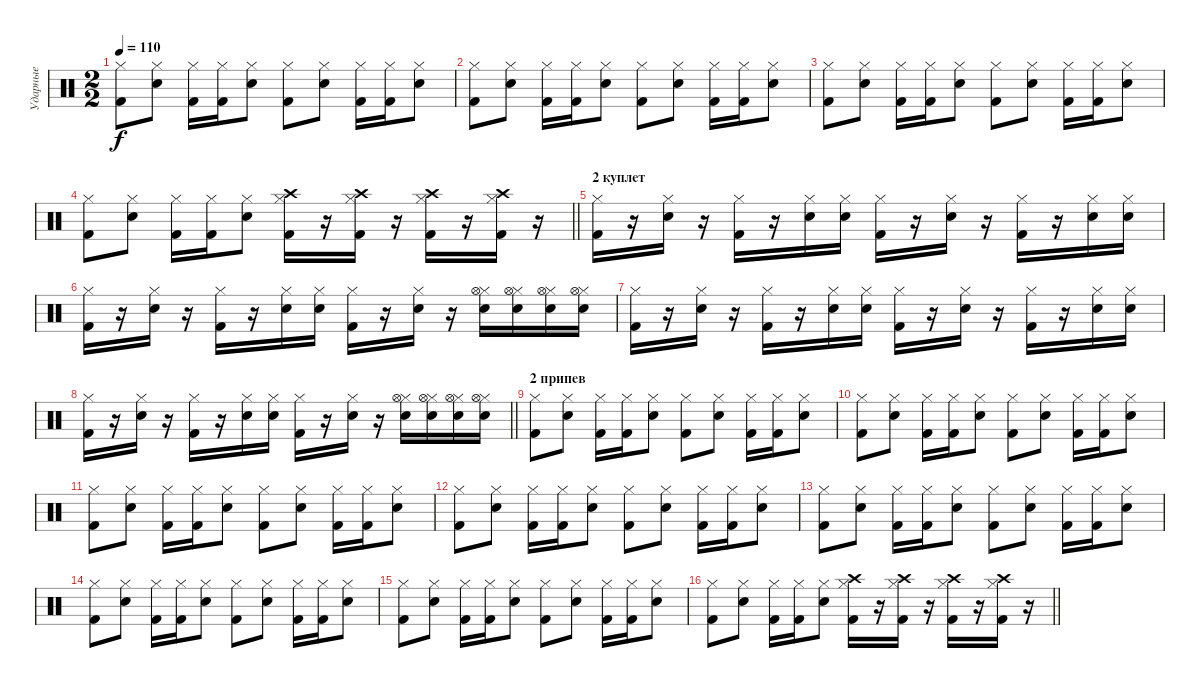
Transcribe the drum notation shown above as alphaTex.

\track ("Ударные" "Ударные") {instrument percussion}
\staff {score}
\articulation defaults
\ts (2 2)
\tempo 110
\clef neutral
\ks c
("Hi-Hat (closed)" "Kick (hit) 2").8{dy f} ("Snare (hit) 2" "Hi-Hat (closed)").8 ("Hi-Hat (closed)" "Kick (hit) 2").16 ("Hi-Hat (closed)" "Kick (hit) 2").16 ("Snare (hit) 2" "Hi-Hat (closed)").8 ("Hi-Hat (closed)" "Kick (hit) 2").8 ("Snare (hit) 2" "Hi-Hat (closed)").8 ("Hi-Hat (closed)" "Kick (hit) 2").16 ("Hi-Hat (closed)" "Kick (hit) 2").16 ("Snare (hit) 2" "Hi-Hat (closed)").8 |
("Hi-Hat (closed)" "Kick (hit) 2").8 ("Snare (hit) 2" "Hi-Hat (closed)").8 ("Hi-Hat (closed)" "Kick (hit) 2").16 ("Hi-Hat (closed)" "Kick (hit) 2").16 ("Snare (hit) 2" "Hi-Hat (closed)").8 ("Hi-Hat (closed)" "Kick (hit) 2").8 ("Snare (hit) 2" "Hi-Hat (closed)").8 ("Hi-Hat (closed)" "Kick (hit) 2").16 ("Hi-Hat (closed)" "Kick (hit) 2").16 ("Snare (hit) 2" "Hi-Hat (closed)").8 |
("Hi-Hat (closed)" "Kick (hit) 2").8 ("Snare (hit) 2" "Hi-Hat (closed)").8 ("Hi-Hat (closed)" "Kick (hit) 2").16 ("Hi-Hat (closed)" "Kick (hit) 2").16 ("Snare (hit) 2" "Hi-Hat (closed)").8 ("Hi-Hat (closed)" "Kick (hit) 2").8 ("Snare (hit) 2" "Hi-Hat (closed)").8 ("Hi-Hat (closed)" "Kick (hit) 2").16 ("Hi-Hat (closed)" "Kick (hit) 2").16 ("Snare (hit) 2" "Hi-Hat (closed)").8 |
\barLineRight lightlight
("Hi-Hat (closed)" "Kick (hit) 2").8 ("Snare (hit) 2" "Hi-Hat (closed)").8 ("Hi-Hat (closed)" "Kick (hit) 2").16 ("Hi-Hat (closed)" "Kick (hit) 2").16 ("Snare (hit) 2" "Hi-Hat (closed)").8 ("Crash high (hit)" "Hi-Hat (closed)" "Kick (hit) 2").16 r.16 ("Crash high (hit)" "Hi-Hat (closed)" "Kick (hit) 2").16 r.16 ("Crash high (hit)" "Hi-Hat (closed)" "Kick (hit) 2").16 r.16 ("Crash high (hit)" "Hi-Hat (closed)" "Kick (hit) 2").16 r.16 |
\section ("" "2 куплет")
("Hi-Hat (closed)" "Kick (hit) 2").16 r.16 ("Hi-Hat (closed)" "Snare (hit) 2").16 r.16 ("Hi-Hat (closed)" "Kick (hit) 2").16 r.16 ("Snare (hit) 2" "Hi-Hat (closed)").16 ("Snare (hit) 2" "Hi-Hat (closed)").16 ("Hi-Hat (closed)" "Kick (hit) 2").16 r.16 ("Snare (hit) 2" "Hi-Hat (closed)").16 r.16 ("Hi-Hat (closed)" "Kick (hit) 2").16 r.16 ("Snare (hit) 2" "Hi-Hat (closed)").16 ("Snare (hit) 2" "Hi-Hat (closed)").16 |
("Hi-Hat (closed)" "Kick (hit) 2").16 r.16 ("Hi-Hat (closed)" "Snare (hit) 2").16 r.16 ("Hi-Hat (closed)" "Kick (hit) 2").16 r.16 ("Snare (hit) 2" "Hi-Hat (closed)").16 ("Snare (hit) 2" "Hi-Hat (closed)").16 ("Hi-Hat (closed)" "Kick (hit) 2").16 r.16 ("Snare (hit) 2" "Hi-Hat (closed)").16 r.16 ("Snare (hit) 2" "Hi-Hat (closed)" "Hi-Hat (open)").16 ("Snare (hit) 2" "Hi-Hat (closed)" "Hi-Hat (open)").16 ("Snare (hit) 2" "Hi-Hat (closed)" "Hi-Hat (open)").16 ("Snare (hit) 2" "Hi-Hat (closed)" "Hi-Hat (open)").16 |
("Hi-Hat (closed)" "Kick (hit) 2").16 r.16 ("Hi-Hat (closed)" "Snare (hit) 2").16 r.16 ("Hi-Hat (closed)" "Kick (hit) 2").16 r.16 ("Snare (hit) 2" "Hi-Hat (closed)").16 ("Snare (hit) 2" "Hi-Hat (closed)").16 ("Hi-Hat (closed)" "Kick (hit) 2").16 r.16 ("Snare (hit) 2" "Hi-Hat (closed)").16 r.16 ("Hi-Hat (closed)" "Kick (hit) 2").16 r.16 ("Snare (hit) 2" "Hi-Hat (closed)").16 ("Snare (hit) 2" "Hi-Hat (closed)").16 |
\barLineRight lightlight
("Hi-Hat (closed)" "Kick (hit) 2").16 r.16 ("Hi-Hat (closed)" "Snare (hit) 2").16 r.16 ("Hi-Hat (closed)" "Kick (hit) 2").16 r.16 ("Snare (hit) 2" "Hi-Hat (closed)").16 ("Snare (hit) 2" "Hi-Hat (closed)").16 ("Hi-Hat (closed)" "Kick (hit) 2").16 r.16 ("Snare (hit) 2" "Hi-Hat (closed)").16 r.16 ("Snare (hit) 2" "Hi-Hat (closed)" "Hi-Hat (open)").16 ("Snare (hit) 2" "Hi-Hat (closed)" "Hi-Hat (open)").16 ("Snare (hit) 2" "Hi-Hat (closed)" "Hi-Hat (open)").16 ("Snare (hit) 2" "Hi-Hat (closed)" "Hi-Hat (open)").16 |
\section ("" "2 припев")
("Hi-Hat (closed)" "Kick (hit) 2").8 ("Snare (hit) 2" "Hi-Hat (closed)").8 ("Hi-Hat (closed)" "Kick (hit) 2").16 ("Hi-Hat (closed)" "Kick (hit) 2").16 ("Snare (hit) 2" "Hi-Hat (closed)").8 ("Hi-Hat (closed)" "Kick (hit) 2").8 ("Snare (hit) 2" "Hi-Hat (closed)").8 ("Hi-Hat (closed)" "Kick (hit) 2").16 ("Hi-Hat (closed)" "Kick (hit) 2").16 ("Snare (hit) 2" "Hi-Hat (closed)").8 |
("Hi-Hat (closed)" "Kick (hit) 2").8 ("Snare (hit) 2" "Hi-Hat (closed)").8 ("Hi-Hat (closed)" "Kick (hit) 2").16 ("Hi-Hat (closed)" "Kick (hit) 2").16 ("Snare (hit) 2" "Hi-Hat (closed)").8 ("Hi-Hat (closed)" "Kick (hit) 2").8 ("Snare (hit) 2" "Hi-Hat (closed)").8 ("Hi-Hat (closed)" "Kick (hit) 2").16 ("Hi-Hat (closed)" "Kick (hit) 2").16 ("Snare (hit) 2" "Hi-Hat (closed)").8 |
("Hi-Hat (closed)" "Kick (hit) 2").8 ("Snare (hit) 2" "Hi-Hat (closed)").8 ("Hi-Hat (closed)" "Kick (hit) 2").16 ("Hi-Hat (closed)" "Kick (hit) 2").16 ("Snare (hit) 2" "Hi-Hat (closed)").8 ("Hi-Hat (closed)" "Kick (hit) 2").8 ("Snare (hit) 2" "Hi-Hat (closed)").8 ("Hi-Hat (closed)" "Kick (hit) 2").16 ("Hi-Hat (closed)" "Kick (hit) 2").16 ("Snare (hit) 2" "Hi-Hat (closed)").8 |
("Hi-Hat (closed)" "Kick (hit) 2").8 ("Snare (hit) 2" "Hi-Hat (closed)").8 ("Hi-Hat (closed)" "Kick (hit) 2").16 ("Hi-Hat (closed)" "Kick (hit) 2").16 ("Snare (hit) 2" "Hi-Hat (closed)").8 ("Hi-Hat (closed)" "Kick (hit) 2").8 ("Snare (hit) 2" "Hi-Hat (closed)").8 ("Hi-Hat (closed)" "Kick (hit) 2").16 ("Hi-Hat (closed)" "Kick (hit) 2").16 ("Snare (hit) 2" "Hi-Hat (closed)").8 |
("Hi-Hat (closed)" "Kick (hit) 2").8 ("Snare (hit) 2" "Hi-Hat (closed)").8 ("Hi-Hat (closed)" "Kick (hit) 2").16 ("Hi-Hat (closed)" "Kick (hit) 2").16 ("Snare (hit) 2" "Hi-Hat (closed)").8 ("Hi-Hat (closed)" "Kick (hit) 2").8 ("Snare (hit) 2" "Hi-Hat (closed)").8 ("Hi-Hat (closed)" "Kick (hit) 2").16 ("Hi-Hat (closed)" "Kick (hit) 2").16 ("Snare (hit) 2" "Hi-Hat (closed)").8 |
("Hi-Hat (closed)" "Kick (hit) 2").8 ("Snare (hit) 2" "Hi-Hat (closed)").8 ("Hi-Hat (closed)" "Kick (hit) 2").16 ("Hi-Hat (closed)" "Kick (hit) 2").16 ("Snare (hit) 2" "Hi-Hat (closed)").8 ("Hi-Hat (closed)" "Kick (hit) 2").8 ("Snare (hit) 2" "Hi-Hat (closed)").8 ("Hi-Hat (closed)" "Kick (hit) 2").16 ("Hi-Hat (closed)" "Kick (hit) 2").16 ("Snare (hit) 2" "Hi-Hat (closed)").8 |
("Hi-Hat (closed)" "Kick (hit) 2").8 ("Snare (hit) 2" "Hi-Hat (closed)").8 ("Hi-Hat (closed)" "Kick (hit) 2").16 ("Hi-Hat (closed)" "Kick (hit) 2").16 ("Snare (hit) 2" "Hi-Hat (closed)").8 ("Hi-Hat (closed)" "Kick (hit) 2").8 ("Snare (hit) 2" "Hi-Hat (closed)").8 ("Hi-Hat (closed)" "Kick (hit) 2").16 ("Hi-Hat (closed)" "Kick (hit) 2").16 ("Snare (hit) 2" "Hi-Hat (closed)").8 |
\barLineRight lightlight
("Hi-Hat (closed)" "Kick (hit) 2").8 ("Snare (hit) 2" "Hi-Hat (closed)").8 ("Hi-Hat (closed)" "Kick (hit) 2").16 ("Hi-Hat (closed)" "Kick (hit) 2").16 ("Snare (hit) 2" "Hi-Hat (closed)").8 ("Crash high (hit)" "Hi-Hat (closed)" "Kick (hit) 2").16 r.16 ("Crash high (hit)" "Hi-Hat (closed)" "Kick (hit) 2").16 r.16 ("Crash high (hit)" "Hi-Hat (closed)" "Kick (hit) 2").16 r.16 ("Crash high (hit)" "Hi-Hat (closed)" "Kick (hit) 2").16 r.16
